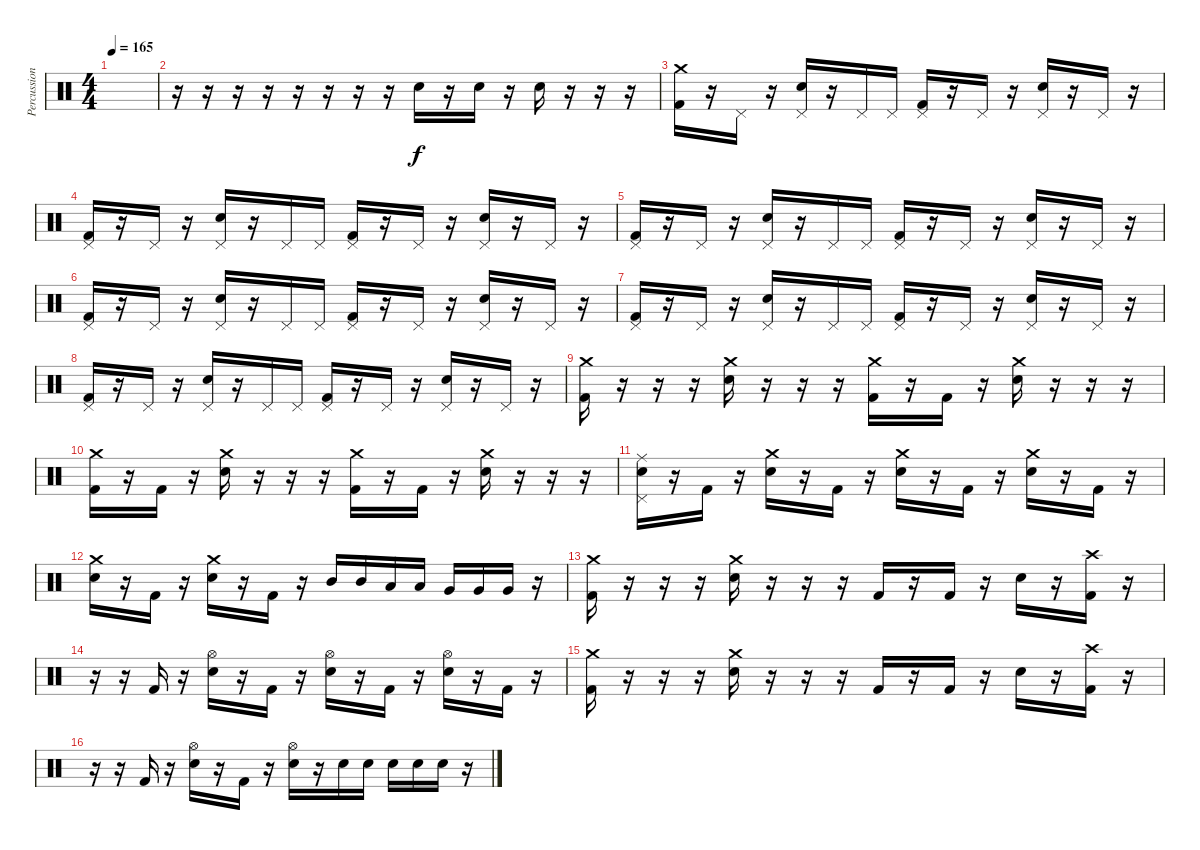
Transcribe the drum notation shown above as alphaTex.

\track ("Percussion" "Percussion") {instrument percussion}
\staff {score}
\articulation defaults
\ts (4 4)
\tempo 165
\clef neutral
\ks c
|
r.16 r.16 r.16 r.16 r.16 r.16 r.16 r.16 "Electric Snare (hit)".16 r.16 "Electric Snare (hit)".16 r.16 "Electric Snare (hit)".16 r.16 r.16 r.16 |
("Crash medium (hit)" "Kick (hit) 2").16 r.16 "Pedal Hi-Hat (hit)".16 r.16 ("Pedal Hi-Hat (hit)" "Electric Snare (hit)").16 r.16 "Pedal Hi-Hat (hit)".16 "Pedal Hi-Hat (hit)".16 ("Pedal Hi-Hat (hit)" "Kick (hit) 2").16 r.16 "Pedal Hi-Hat (hit)".16 r.16 ("Pedal Hi-Hat (hit)" "Electric Snare (hit)").16 r.16 "Pedal Hi-Hat (hit)".16 r.16 |
("Pedal Hi-Hat (hit)" "Kick (hit) 2").16 r.16 "Pedal Hi-Hat (hit)".16 r.16 ("Pedal Hi-Hat (hit)" "Electric Snare (hit)").16 r.16 "Pedal Hi-Hat (hit)".16 "Pedal Hi-Hat (hit)".16 ("Pedal Hi-Hat (hit)" "Kick (hit) 2").16 r.16 "Pedal Hi-Hat (hit)".16 r.16 ("Pedal Hi-Hat (hit)" "Electric Snare (hit)").16 r.16 "Pedal Hi-Hat (hit)".16 r.16 |
("Pedal Hi-Hat (hit)" "Kick (hit) 2").16 r.16 "Pedal Hi-Hat (hit)".16 r.16 ("Pedal Hi-Hat (hit)" "Electric Snare (hit)").16 r.16 "Pedal Hi-Hat (hit)".16 "Pedal Hi-Hat (hit)".16 ("Pedal Hi-Hat (hit)" "Kick (hit) 2").16 r.16 "Pedal Hi-Hat (hit)".16 r.16 ("Pedal Hi-Hat (hit)" "Electric Snare (hit)").16 r.16 "Pedal Hi-Hat (hit)".16 r.16 |
("Pedal Hi-Hat (hit)" "Kick (hit) 2").16 r.16 "Pedal Hi-Hat (hit)".16 r.16 ("Pedal Hi-Hat (hit)" "Electric Snare (hit)").16 r.16 "Pedal Hi-Hat (hit)".16 "Pedal Hi-Hat (hit)".16 ("Pedal Hi-Hat (hit)" "Kick (hit) 2").16 r.16 "Pedal Hi-Hat (hit)".16 r.16 ("Pedal Hi-Hat (hit)" "Electric Snare (hit)").16 r.16 "Pedal Hi-Hat (hit)".16 r.16 |
("Pedal Hi-Hat (hit)" "Kick (hit) 2").16 r.16 "Pedal Hi-Hat (hit)".16 r.16 ("Pedal Hi-Hat (hit)" "Electric Snare (hit)").16 r.16 "Pedal Hi-Hat (hit)".16 "Pedal Hi-Hat (hit)".16 ("Pedal Hi-Hat (hit)" "Kick (hit) 2").16 r.16 "Pedal Hi-Hat (hit)".16 r.16 ("Pedal Hi-Hat (hit)" "Electric Snare (hit)").16 r.16 "Pedal Hi-Hat (hit)".16 r.16 |
("Pedal Hi-Hat (hit)" "Kick (hit) 2").16 r.16 "Pedal Hi-Hat (hit)".16 r.16 ("Pedal Hi-Hat (hit)" "Electric Snare (hit)").16 r.16 "Pedal Hi-Hat (hit)".16 "Pedal Hi-Hat (hit)".16 ("Pedal Hi-Hat (hit)" "Kick (hit) 2").16 r.16 "Pedal Hi-Hat (hit)".16 r.16 ("Pedal Hi-Hat (hit)" "Electric Snare (hit)").16 r.16 "Pedal Hi-Hat (hit)".16 r.16 |
("Crash medium (hit)" "Kick (hit) 2").16 r.16 r.16 r.16 ("Crash medium (hit)" "Electric Snare (hit)").16 r.16 r.16 r.16 ("Crash medium (hit)" "Kick (hit) 2").16 r.16 "Kick (hit) 2".16 r.16 ("Crash medium (hit)" "Electric Snare (hit)").16 r.16 r.16 r.16 |
("Crash medium (hit)" "Kick (hit) 2").16 r.16 "Kick (hit) 2".16 r.16 ("Crash medium (hit)" "Electric Snare (hit)").16 r.16 r.16 r.16 ("Crash medium (hit)" "Kick (hit) 2").16 r.16 "Kick (hit) 2".16 r.16 ("Crash medium (hit)" "Electric Snare (hit)").16 r.16 r.16 r.16 |
("Pedal Hi-Hat (hit)" "Ride (middle)" "Electric Snare (hit)").16 r.16 "Kick (hit) 2".16 r.16 ("Crash medium (hit)" "Electric Snare (hit)").16 r.16 "Kick (hit) 2".16 r.16 ("Crash medium (hit)" "Electric Snare (hit)").16 r.16 "Kick (hit) 2".16 r.16 ("Crash medium (hit)" "Electric Snare (hit)").16 r.16 "Kick (hit) 2".16 r.16 |
("Crash medium (hit)" "Electric Snare (hit)").16 r.16 "Kick (hit) 2".16 r.16 ("Crash medium (hit)" "Electric Snare (hit)").16 r.16 "Kick (hit) 2".16 r.16 "Mid Tom (hit)".16 "Mid Tom (hit)".16 "Low Tom (hit)".16 "Low Tom (hit)".16 "Very Low Tom (hit)".16 "Very Low Tom (hit)".16 "Very Low Tom (hit)".16 r.16 |
("Crash medium (hit)" "Kick (hit) 2").16 r.16 r.16 r.16 ("Crash medium (hit)" "Electric Snare (hit)").16 r.16 r.16 r.16 "Kick (hit) 2".16 r.16 "Kick (hit) 2".16 r.16 "Electric Snare (hit)".16 r.16 ("Crash high (hit)" "Kick (hit) 2").16 r.16 |
r.16 r.16 "Kick (hit) 2".16 r.16 ("Hi-Hat (open)" "Electric Snare (hit)").16 r.16 "Kick (hit) 2".16 r.16 ("Hi-Hat (open)" "Electric Snare (hit)").16 r.16 "Kick (hit) 2".16 r.16 ("Hi-Hat (open)" "Electric Snare (hit)").16 r.16 "Kick (hit) 2".16 r.16 |
("Crash medium (hit)" "Kick (hit) 2").16 r.16 r.16 r.16 ("Crash medium (hit)" "Electric Snare (hit)").16 r.16 r.16 r.16 "Kick (hit) 2".16 r.16 "Kick (hit) 2".16 r.16 "Electric Snare (hit)".16 r.16 ("Crash high (hit)" "Kick (hit) 2").16 r.16 |
r.16 r.16 "Kick (hit) 2".16 r.16 ("Hi-Hat (open)" "Electric Snare (hit)").16 r.16 "Kick (hit) 2".16 r.16 ("Hi-Hat (open)" "Electric Snare (hit)").16 r.16 "Electric Snare (hit)".16 "Electric Snare (hit)".16 "Electric Snare (hit)".16 "Electric Snare (hit)".16 "Electric Snare (hit)".16 r.16
